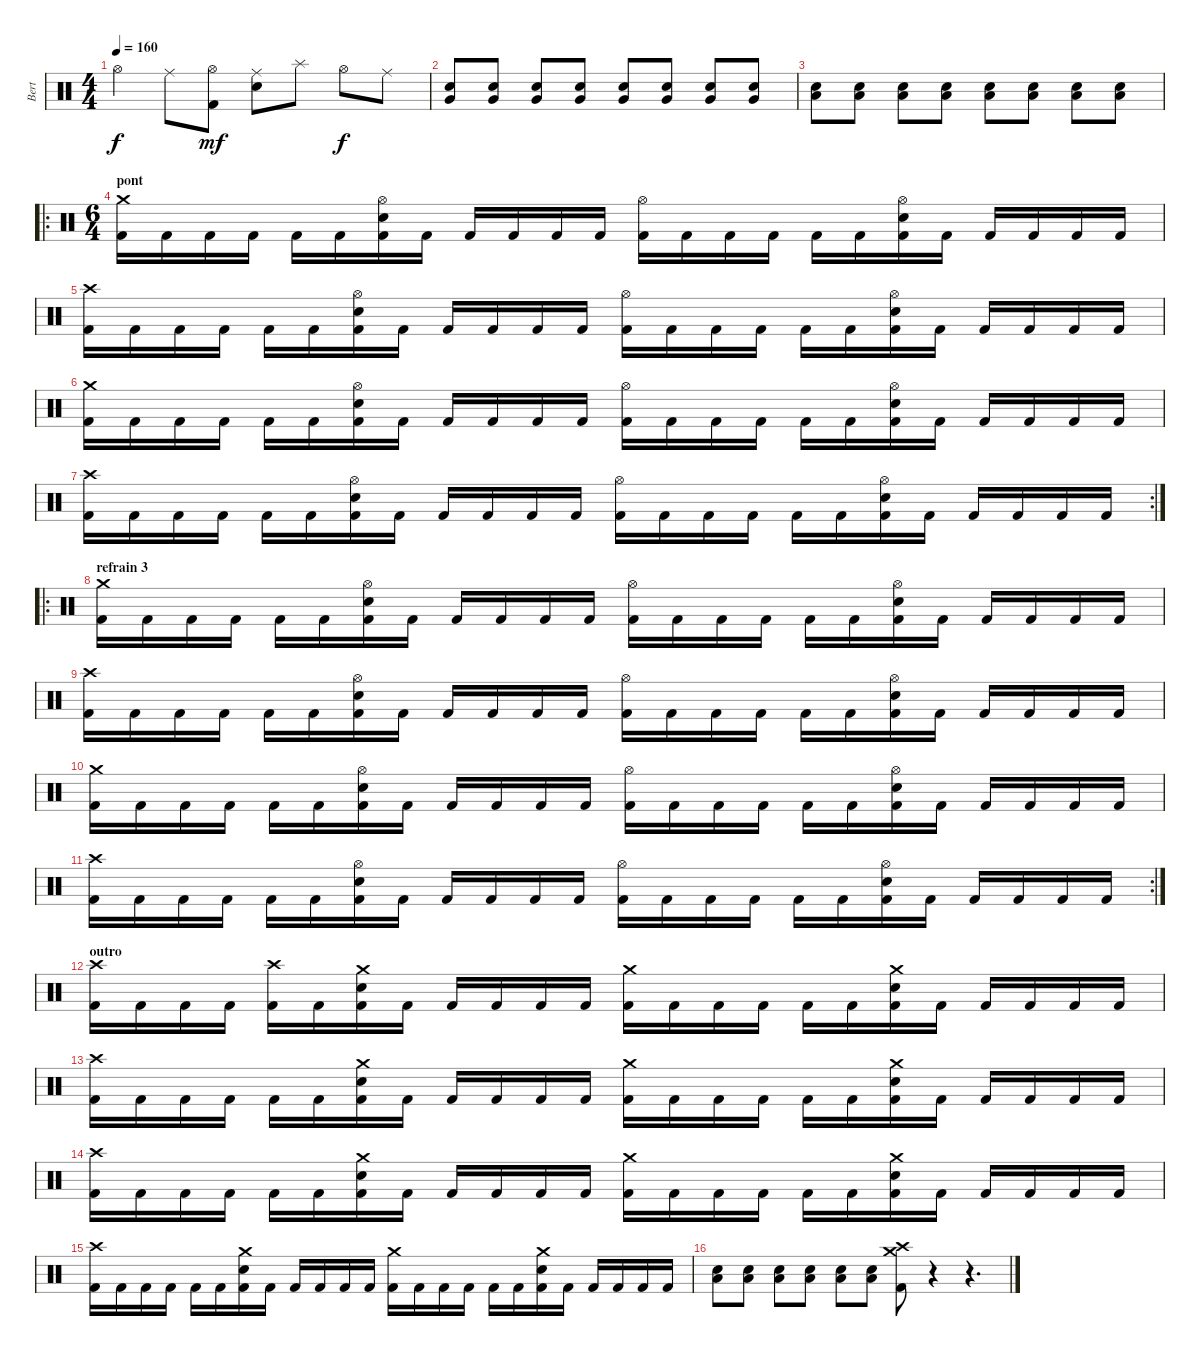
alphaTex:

\track ("Bert" "Bert") {instrument percussion}
\staff {score}
\articulation defaults
\ts (4 4)
\tempo 160
\clef neutral
\ks c "Hi-Hat (open)".4{dy f} "Ride (middle)".8
("Hi-Hat (open)" "Kick (hit) 2").8{dy mf} ("Ride (middle)" "Snare (hit) 2").8 "Splash (hit)".8 "Hi-Hat (open)".8{dy f} "Ride (middle)".8 |
("Snare (hit) 2" "Very Low Tom (hit)").8{volume 1} ("Snare (hit) 2" "Very Low Tom (hit)").8{volume 2} ("Snare (hit) 2" "Very Low Tom (hit)").8{volume 3} ("Snare (hit) 2" "Very Low Tom (hit)").8{volume 4} ("Snare (hit) 2" "Very Low Tom (hit)").8{volume 5} ("Snare (hit) 2" "Very Low Tom (hit)").8{volume 6} ("Snare (hit) 2" "Very Low Tom (hit)").8{volume 7} ("Snare (hit) 2" "Very Low Tom (hit)").8{volume 8} |
("Snare (hit) 2" "Low Tom (hit)").8{volume 9} ("Snare (hit) 2" "Low Tom (hit)").8{volume 10} ("Snare (hit) 2" "Low Tom (hit)").8{volume 11} ("Snare (hit) 2" "Low Tom (hit)").8{volume 12} ("Snare (hit) 2" "Low Tom (hit)").8{volume 13} ("Snare (hit) 2" "Low Tom (hit)").8{volume 14} ("Snare (hit) 2" "Low Tom (hit)").8{volume 15} ("Snare (hit) 2" "Low Tom (hit)").8 |
\ro
\ts (6 4)
\section ("" "pont")
("Crash medium (hit)" "Kick (hit) 2").16 "Kick (hit) 2".16 "Kick (hit) 2".16 "Kick (hit) 2".16 "Kick (hit) 2".16 "Kick (hit) 2".16 ("Hi-Hat (open)" "Snare (hit) 2" "Kick (hit) 2").16 "Kick (hit) 2".16 "Kick (hit) 2".16 "Kick (hit) 2".16 "Kick (hit) 2".16 "Kick (hit) 2".16 ("Hi-Hat (open)" "Kick (hit) 2").16 "Kick (hit) 2".16 "Kick (hit) 2".16 "Kick (hit) 2".16 "Kick (hit) 2".16 "Kick (hit) 2".16 ("Hi-Hat (open)" "Snare (hit) 2" "Kick (hit) 2").16 "Kick (hit) 2".16 "Kick (hit) 2".16 "Kick (hit) 2".16 "Kick (hit) 2".16 "Kick (hit) 2".16 |
("Crash high (hit)" "Kick (hit) 2").16 "Kick (hit) 2".16 "Kick (hit) 2".16 "Kick (hit) 2".16 "Kick (hit) 2".16 "Kick (hit) 2".16 ("Hi-Hat (open)" "Snare (hit) 2" "Kick (hit) 2").16 "Kick (hit) 2".16 "Kick (hit) 2".16 "Kick (hit) 2".16 "Kick (hit) 2".16 "Kick (hit) 2".16 ("Hi-Hat (open)" "Kick (hit) 2").16 "Kick (hit) 2".16 "Kick (hit) 2".16 "Kick (hit) 2".16 "Kick (hit) 2".16 "Kick (hit) 2".16 ("Hi-Hat (open)" "Snare (hit) 2" "Kick (hit) 2").16 "Kick (hit) 2".16 "Kick (hit) 2".16 "Kick (hit) 2".16 "Kick (hit) 2".16 "Kick (hit) 2".16 |
("Crash medium (hit)" "Kick (hit) 2").16 "Kick (hit) 2".16 "Kick (hit) 2".16 "Kick (hit) 2".16 "Kick (hit) 2".16 "Kick (hit) 2".16 ("Hi-Hat (open)" "Snare (hit) 2" "Kick (hit) 2").16 "Kick (hit) 2".16 "Kick (hit) 2".16 "Kick (hit) 2".16 "Kick (hit) 2".16 "Kick (hit) 2".16 ("Hi-Hat (open)" "Kick (hit) 2").16 "Kick (hit) 2".16 "Kick (hit) 2".16 "Kick (hit) 2".16 "Kick (hit) 2".16 "Kick (hit) 2".16 ("Hi-Hat (open)" "Snare (hit) 2" "Kick (hit) 2").16 "Kick (hit) 2".16 "Kick (hit) 2".16 "Kick (hit) 2".16 "Kick (hit) 2".16 "Kick (hit) 2".16 |
\rc 2
("Crash high (hit)" "Kick (hit) 2").16 "Kick (hit) 2".16 "Kick (hit) 2".16 "Kick (hit) 2".16 "Kick (hit) 2".16 "Kick (hit) 2".16 ("Hi-Hat (open)" "Snare (hit) 2" "Kick (hit) 2").16 "Kick (hit) 2".16 "Kick (hit) 2".16 "Kick (hit) 2".16 "Kick (hit) 2".16 "Kick (hit) 2".16 ("Hi-Hat (open)" "Kick (hit) 2").16 "Kick (hit) 2".16 "Kick (hit) 2".16 "Kick (hit) 2".16 "Kick (hit) 2".16 "Kick (hit) 2".16 ("Hi-Hat (open)" "Snare (hit) 2" "Kick (hit) 2").16 "Kick (hit) 2".16 "Kick (hit) 2".16 "Kick (hit) 2".16 "Kick (hit) 2".16 "Kick (hit) 2".16 |
\ro
\section ("" "refrain 3")
("Crash medium (hit)" "Kick (hit) 2").16 "Kick (hit) 2".16 "Kick (hit) 2".16 "Kick (hit) 2".16 "Kick (hit) 2".16 "Kick (hit) 2".16 ("Hi-Hat (open)" "Snare (hit) 2" "Kick (hit) 2").16 "Kick (hit) 2".16 "Kick (hit) 2".16 "Kick (hit) 2".16 "Kick (hit) 2".16 "Kick (hit) 2".16 ("Hi-Hat (open)" "Kick (hit) 2").16 "Kick (hit) 2".16 "Kick (hit) 2".16 "Kick (hit) 2".16 "Kick (hit) 2".16 "Kick (hit) 2".16 ("Hi-Hat (open)" "Snare (hit) 2" "Kick (hit) 2").16 "Kick (hit) 2".16 "Kick (hit) 2".16 "Kick (hit) 2".16 "Kick (hit) 2".16 "Kick (hit) 2".16 |
("Crash high (hit)" "Kick (hit) 2").16 "Kick (hit) 2".16 "Kick (hit) 2".16 "Kick (hit) 2".16 "Kick (hit) 2".16 "Kick (hit) 2".16 ("Hi-Hat (open)" "Snare (hit) 2" "Kick (hit) 2").16 "Kick (hit) 2".16 "Kick (hit) 2".16 "Kick (hit) 2".16 "Kick (hit) 2".16 "Kick (hit) 2".16 ("Hi-Hat (open)" "Kick (hit) 2").16 "Kick (hit) 2".16 "Kick (hit) 2".16 "Kick (hit) 2".16 "Kick (hit) 2".16 "Kick (hit) 2".16 ("Hi-Hat (open)" "Snare (hit) 2" "Kick (hit) 2").16 "Kick (hit) 2".16 "Kick (hit) 2".16 "Kick (hit) 2".16 "Kick (hit) 2".16 "Kick (hit) 2".16 |
("Crash medium (hit)" "Kick (hit) 2").16 "Kick (hit) 2".16 "Kick (hit) 2".16 "Kick (hit) 2".16 "Kick (hit) 2".16 "Kick (hit) 2".16 ("Hi-Hat (open)" "Snare (hit) 2" "Kick (hit) 2").16 "Kick (hit) 2".16 "Kick (hit) 2".16 "Kick (hit) 2".16 "Kick (hit) 2".16 "Kick (hit) 2".16 ("Hi-Hat (open)" "Kick (hit) 2").16 "Kick (hit) 2".16 "Kick (hit) 2".16 "Kick (hit) 2".16 "Kick (hit) 2".16 "Kick (hit) 2".16 ("Hi-Hat (open)" "Snare (hit) 2" "Kick (hit) 2").16 "Kick (hit) 2".16 "Kick (hit) 2".16 "Kick (hit) 2".16 "Kick (hit) 2".16 "Kick (hit) 2".16 |
\rc 2
("Crash high (hit)" "Kick (hit) 2").16 "Kick (hit) 2".16 "Kick (hit) 2".16 "Kick (hit) 2".16 "Kick (hit) 2".16 "Kick (hit) 2".16 ("Hi-Hat (open)" "Snare (hit) 2" "Kick (hit) 2").16 "Kick (hit) 2".16 "Kick (hit) 2".16 "Kick (hit) 2".16 "Kick (hit) 2".16 "Kick (hit) 2".16 ("Hi-Hat (open)" "Kick (hit) 2").16 "Kick (hit) 2".16 "Kick (hit) 2".16 "Kick (hit) 2".16 "Kick (hit) 2".16 "Kick (hit) 2".16 ("Hi-Hat (open)" "Snare (hit) 2" "Kick (hit) 2").16 "Kick (hit) 2".16 "Kick (hit) 2".16 "Kick (hit) 2".16 "Kick (hit) 2".16 "Kick (hit) 2".16 |
\section ("" "outro")
("Crash high (hit)" "Kick (hit) 2").16 "Kick (hit) 2".16 "Kick (hit) 2".16 "Kick (hit) 2".16 ("Crash high (hit)" "Kick (hit) 2").16 "Kick (hit) 2".16 ("Crash medium (hit)" "Snare (hit) 2" "Kick (hit) 2").16 "Kick (hit) 2".16 "Kick (hit) 2".16 "Kick (hit) 2".16 "Kick (hit) 2".16 "Kick (hit) 2".16 ("Crash medium (hit)" "Kick (hit) 2").16 "Kick (hit) 2".16 "Kick (hit) 2".16 "Kick (hit) 2".16 "Kick (hit) 2".16 "Kick (hit) 2".16 ("Crash medium (hit)" "Snare (hit) 2" "Kick (hit) 2").16 "Kick (hit) 2".16 "Kick (hit) 2".16 "Kick (hit) 2".16 "Kick (hit) 2".16 "Kick (hit) 2".16 |
("Crash high (hit)" "Kick (hit) 2").16 "Kick (hit) 2".16 "Kick (hit) 2".16 "Kick (hit) 2".16 "Kick (hit) 2".16 "Kick (hit) 2".16 ("Crash medium (hit)" "Snare (hit) 2" "Kick (hit) 2").16 "Kick (hit) 2".16 "Kick (hit) 2".16 "Kick (hit) 2".16 "Kick (hit) 2".16 "Kick (hit) 2".16 ("Crash medium (hit)" "Kick (hit) 2").16 "Kick (hit) 2".16 "Kick (hit) 2".16 "Kick (hit) 2".16 "Kick (hit) 2".16 "Kick (hit) 2".16 ("Crash medium (hit)" "Snare (hit) 2" "Kick (hit) 2").16 "Kick (hit) 2".16 "Kick (hit) 2".16 "Kick (hit) 2".16 "Kick (hit) 2".16 "Kick (hit) 2".16 |
("Crash high (hit)" "Kick (hit) 2").16 "Kick (hit) 2".16 "Kick (hit) 2".16 "Kick (hit) 2".16 "Kick (hit) 2".16 "Kick (hit) 2".16 ("Crash medium (hit)" "Snare (hit) 2" "Kick (hit) 2").16 "Kick (hit) 2".16 "Kick (hit) 2".16 "Kick (hit) 2".16 "Kick (hit) 2".16 "Kick (hit) 2".16 ("Crash medium (hit)" "Kick (hit) 2").16 "Kick (hit) 2".16 "Kick (hit) 2".16 "Kick (hit) 2".16 "Kick (hit) 2".16 "Kick (hit) 2".16 ("Crash medium (hit)" "Snare (hit) 2" "Kick (hit) 2").16 "Kick (hit) 2".16 "Kick (hit) 2".16 "Kick (hit) 2".16 "Kick (hit) 2".16 "Kick (hit) 2".16 |
("Crash high (hit)" "Kick (hit) 2").16 "Kick (hit) 2".16 "Kick (hit) 2".16 "Kick (hit) 2".16 "Kick (hit) 2".16 "Kick (hit) 2".16 ("Crash medium (hit)" "Snare (hit) 2" "Kick (hit) 2").16 "Kick (hit) 2".16 "Kick (hit) 2".16 "Kick (hit) 2".16 "Kick (hit) 2".16 "Kick (hit) 2".16 ("Crash medium (hit)" "Kick (hit) 2").16 "Kick (hit) 2".16 "Kick (hit) 2".16 "Kick (hit) 2".16 "Kick (hit) 2".16 "Kick (hit) 2".16 ("Crash medium (hit)" "Snare (hit) 2" "Kick (hit) 2").16 "Kick (hit) 2".16 "Kick (hit) 2".16 "Kick (hit) 2".16 "Kick (hit) 2".16 "Kick (hit) 2".16 |
("Snare (hit) 2" "Low Tom (hit)").8 ("Snare (hit) 2" "Low Tom (hit)").8 ("Snare (hit) 2" "Low Tom (hit)").8 ("Snare (hit) 2" "Low Tom (hit)").8 ("Snare (hit) 2" "Low Tom (hit)").8 ("Snare (hit) 2" "Low Tom (hit)").8 ("Crash medium (hit)" "Crash high (hit)" "Kick (hit) 2").8 r.4 r.4{d}
